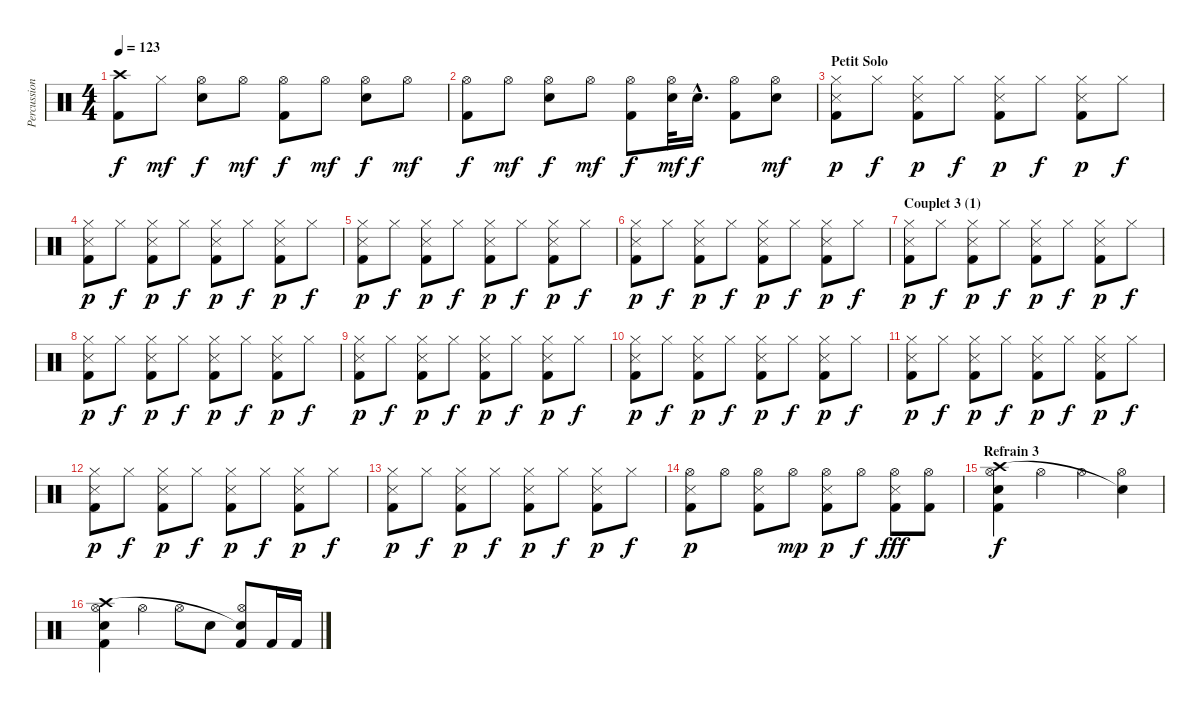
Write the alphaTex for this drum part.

\track ("Percussions" "Percussion") {instrument percussion}
\staff {score}
\articulation defaults
\ts (4 4)
\tempo 123
\clef neutral
\ks c
("Crash high (hit)" "Kick (hit) 2").8{dy f} "Hi-Hat (closed)".8{dy mf} ("Hi-Hat (open)" "Electric Snare (hit)").8{dy f} "Hi-Hat (open)".8{dy mf} ("Hi-Hat (open)" "Kick (hit) 2").8{dy f} "Hi-Hat (open)".8{dy mf} ("Hi-Hat (open)" "Electric Snare (hit)").8{dy f} "Hi-Hat (open)".8{dy mf} |
("Hi-Hat (open)" "Kick (hit) 2").8{dy f} "Hi-Hat (open)".8{dy mf} ("Hi-Hat (open)" "Electric Snare (hit)").8{dy f} "Hi-Hat (open)".8{dy mf} ("Hi-Hat (open)" "Kick (hit) 2").8{dy f} ("Hi-Hat (open)" "Electric Snare (hit)").32{dy mf} "Electric Snare (hit)"{hac}.16{d dy f} ("Hi-Hat (open)" "Kick (hit) 2").8 ("Hi-Hat (open)" "Electric Snare (hit)").8{dy mf} |
\section ("" "Petit Solo")
("Hi-Hat (closed)" "Snare (side stick) 3" "Kick (hit) 2").8{dy p} "Hi-Hat (closed)".8{dy f} ("Hi-Hat (closed)" "Snare (side stick) 3" "Kick (hit) 2").8{dy p} "Hi-Hat (closed)".8{dy f} ("Hi-Hat (closed)" "Snare (side stick) 3" "Kick (hit) 2").8{dy p} "Hi-Hat (closed)".8{dy f} ("Hi-Hat (closed)" "Snare (side stick) 3" "Kick (hit) 2").8{dy p} "Hi-Hat (closed)".8{dy f} |
("Hi-Hat (closed)" "Snare (side stick) 3" "Kick (hit) 2").8{dy p} "Hi-Hat (closed)".8{dy f} ("Hi-Hat (closed)" "Snare (side stick) 3" "Kick (hit) 2").8{dy p} "Hi-Hat (closed)".8{dy f} ("Hi-Hat (closed)" "Snare (side stick) 3" "Kick (hit) 2").8{dy p} "Hi-Hat (closed)".8{dy f} ("Hi-Hat (closed)" "Snare (side stick) 3" "Kick (hit) 2").8{dy p} "Hi-Hat (closed)".8{dy f} |
("Hi-Hat (closed)" "Snare (side stick) 3" "Kick (hit) 2").8{dy p} "Hi-Hat (closed)".8{dy f} ("Hi-Hat (closed)" "Snare (side stick) 3" "Kick (hit) 2").8{dy p} "Hi-Hat (closed)".8{dy f} ("Hi-Hat (closed)" "Snare (side stick) 3" "Kick (hit) 2").8{dy p} "Hi-Hat (closed)".8{dy f} ("Hi-Hat (closed)" "Snare (side stick) 3" "Kick (hit) 2").8{dy p} "Hi-Hat (closed)".8{dy f} |
("Hi-Hat (closed)" "Snare (side stick) 3" "Kick (hit) 2").8{dy p} "Hi-Hat (closed)".8{dy f} ("Hi-Hat (closed)" "Snare (side stick) 3" "Kick (hit) 2").8{dy p} "Hi-Hat (closed)".8{dy f} ("Hi-Hat (closed)" "Snare (side stick) 3" "Kick (hit) 2").8{dy p} "Hi-Hat (closed)".8{dy f} ("Hi-Hat (closed)" "Snare (side stick) 3" "Kick (hit) 2").8{dy p} "Hi-Hat (closed)".8{dy f} |
\section ("" "Couplet 3 (1)")
("Hi-Hat (closed)" "Snare (side stick) 3" "Kick (hit) 2").8{dy p} "Hi-Hat (closed)".8{dy f} ("Hi-Hat (closed)" "Snare (side stick) 3" "Kick (hit) 2").8{dy p} "Hi-Hat (closed)".8{dy f} ("Hi-Hat (closed)" "Snare (side stick) 3" "Kick (hit) 2").8{dy p} "Hi-Hat (closed)".8{dy f} ("Hi-Hat (closed)" "Snare (side stick) 3" "Kick (hit) 2").8{dy p} "Hi-Hat (closed)".8{dy f} |
("Hi-Hat (closed)" "Snare (side stick) 3" "Kick (hit) 2").8{dy p} "Hi-Hat (closed)".8{dy f} ("Hi-Hat (closed)" "Snare (side stick) 3" "Kick (hit) 2").8{dy p} "Hi-Hat (closed)".8{dy f} ("Hi-Hat (closed)" "Snare (side stick) 3" "Kick (hit) 2").8{dy p} "Hi-Hat (closed)".8{dy f} ("Hi-Hat (closed)" "Snare (side stick) 3" "Kick (hit) 2").8{dy p} "Hi-Hat (closed)".8{dy f} |
("Hi-Hat (closed)" "Snare (side stick) 3" "Kick (hit) 2").8{dy p} "Hi-Hat (closed)".8{dy f} ("Hi-Hat (closed)" "Snare (side stick) 3" "Kick (hit) 2").8{dy p} "Hi-Hat (closed)".8{dy f} ("Hi-Hat (closed)" "Snare (side stick) 3" "Kick (hit) 2").8{dy p} "Hi-Hat (closed)".8{dy f} ("Hi-Hat (closed)" "Snare (side stick) 3" "Kick (hit) 2").8{dy p} "Hi-Hat (closed)".8{dy f} |
("Hi-Hat (closed)" "Snare (side stick) 3" "Kick (hit) 2").8{dy p} "Hi-Hat (closed)".8{dy f} ("Hi-Hat (closed)" "Snare (side stick) 3" "Kick (hit) 2").8{dy p} "Hi-Hat (closed)".8{dy f} ("Hi-Hat (closed)" "Snare (side stick) 3" "Kick (hit) 2").8{dy p} "Hi-Hat (closed)".8{dy f} ("Hi-Hat (closed)" "Snare (side stick) 3" "Kick (hit) 2").8{dy p} "Hi-Hat (closed)".8{dy f} |
("Hi-Hat (closed)" "Snare (side stick) 3" "Kick (hit) 2").8{dy p} "Hi-Hat (closed)".8{dy f} ("Hi-Hat (closed)" "Snare (side stick) 3" "Kick (hit) 2").8{dy p} "Hi-Hat (closed)".8{dy f} ("Hi-Hat (closed)" "Snare (side stick) 3" "Kick (hit) 2").8{dy p} "Hi-Hat (closed)".8{dy f} ("Hi-Hat (closed)" "Snare (side stick) 3" "Kick (hit) 2").8{dy p} "Hi-Hat (closed)".8{dy f} |
("Hi-Hat (closed)" "Snare (side stick) 3" "Kick (hit) 2").8{dy p} "Hi-Hat (closed)".8{dy f} ("Hi-Hat (closed)" "Snare (side stick) 3" "Kick (hit) 2").8{dy p} "Hi-Hat (closed)".8{dy f} ("Hi-Hat (closed)" "Snare (side stick) 3" "Kick (hit) 2").8{dy p} "Hi-Hat (closed)".8{dy f} ("Hi-Hat (closed)" "Snare (side stick) 3" "Kick (hit) 2").8{dy p} "Hi-Hat (closed)".8{dy f} |
("Hi-Hat (closed)" "Snare (side stick) 3" "Kick (hit) 2").8{dy p} "Hi-Hat (closed)".8{dy f} ("Hi-Hat (closed)" "Snare (side stick) 3" "Kick (hit) 2").8{dy p} "Hi-Hat (closed)".8{dy f} ("Hi-Hat (closed)" "Snare (side stick) 3" "Kick (hit) 2").8{dy p} "Hi-Hat (closed)".8{dy f} ("Hi-Hat (closed)" "Snare (side stick) 3" "Kick (hit) 2").8{dy p} "Hi-Hat (closed)".8{dy f} |
("Hi-Hat (open)" "Snare (side stick) 3" "Kick (hit) 2").8{dy p} "Hi-Hat (open)".8 ("Hi-Hat (open)" "Snare (side stick) 3" "Kick (hit) 2").8 "Hi-Hat (open)".8{dy mp} ("Hi-Hat (open)" "Snare (side stick) 3" "Kick (hit) 2").8{dy p} "Hi-Hat (open)".8{dy f} ("Hi-Hat (open)" "Snare (side stick) 3" "Kick (hit) 2").8{dy fff} ("Hi-Hat (open)" "Kick (hit) 2").8 |
\section ("" "Refrain 3")
("Hi-Hat (open)" "Crash high (hit)" "Electric Snare (hit)" "Kick (hit) 2").4{dy f} "Hi-Hat (open)".4 "Hi-Hat (open)".4 ("Hi-Hat (open)" "Snare (hit)"{t}).4 |
("Hi-Hat (open)" "Crash high (hit)" "Electric Snare (hit)" "Kick (hit) 2").4 "Hi-Hat (open)".4 "Hi-Hat (open)".8 "Electric Snare (hit)".8 ("Hi-Hat (open)" "Snare (hit)"{t} "Kick (hit) 2").8 "Kick (hit) 2".16 "Kick (hit) 2".16
